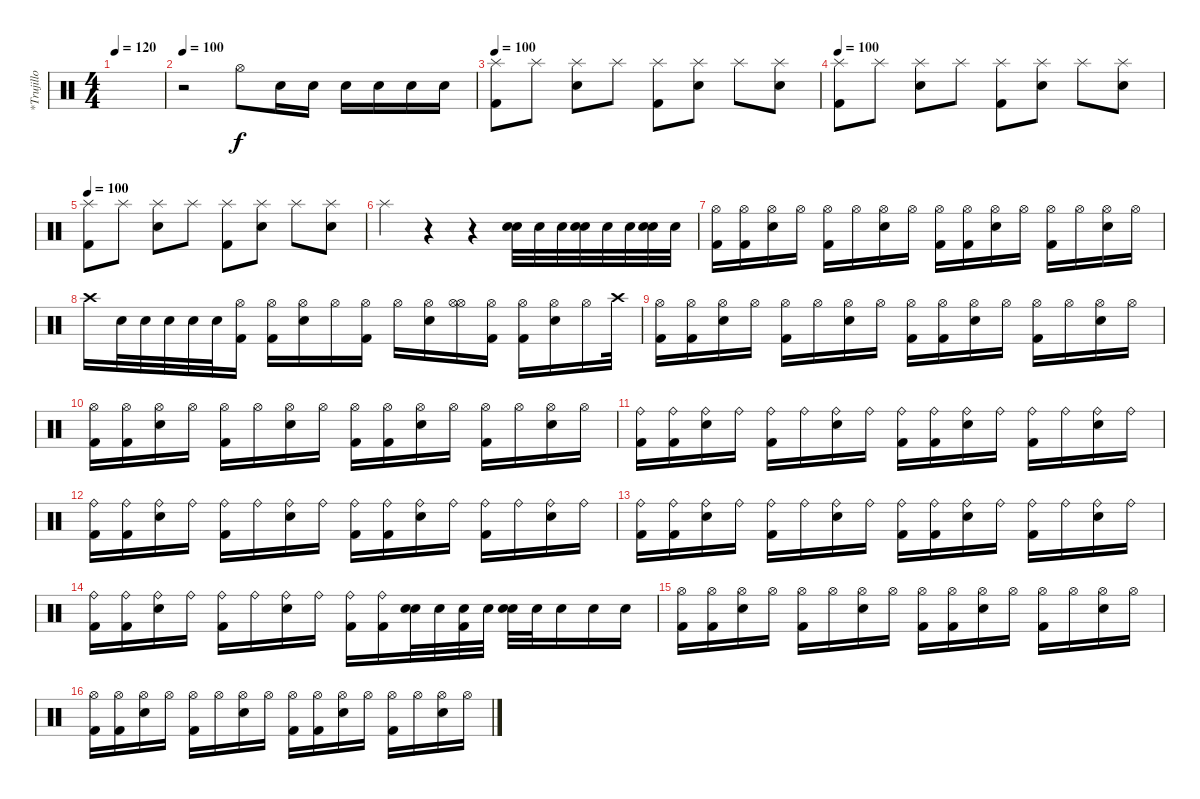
\track ("*Trujillo" "*Trujillo") {instrument percussion}
\staff {score}
\articulation defaults
\ts (4 4)
\tempo 120
\tempo 100
\tempo 120
\clef neutral
\ks c
|
\tempo 100
r.2 "Hi-Hat (open)".8 "Electric Snare (hit)".16 "Electric Snare (hit)".16 "Electric Snare (hit)".16 "Electric Snare (hit)".16 "Electric Snare (hit)".16 "Electric Snare (hit)".16 |
\tempo 100
("Splash (hit)" "Kick (hit) 2").8 "Splash (hit)".8 ("Splash (hit)" "Electric Snare (hit)").8 "Splash (hit)".8 ("Splash (hit)" "Kick (hit) 2").8 ("Splash (hit)" "Electric Snare (hit)").8 "Splash (hit)".8 ("Splash (hit)" "Electric Snare (hit)").8 |
\tempo 100
("Splash (hit)" "Kick (hit) 2").8 "Splash (hit)".8 ("Splash (hit)" "Electric Snare (hit)").8 "Splash (hit)".8 ("Splash (hit)" "Kick (hit) 2").8 ("Splash (hit)" "Electric Snare (hit)").8 "Splash (hit)".8 ("Splash (hit)" "Electric Snare (hit)").8 |
\tempo 100
("Splash (hit)" "Kick (hit) 2").8 "Splash (hit)".8 ("Splash (hit)" "Electric Snare (hit)").8 "Splash (hit)".8 ("Splash (hit)" "Kick (hit) 2").8 ("Splash (hit)" "Electric Snare (hit)").8 "Splash (hit)".8 ("Splash (hit)" "Electric Snare (hit)").8 |
"Splash (hit)".4 r.4 r.4 ("Electric Snare (hit)" "Electric Snare (hit)").32 "Electric Snare (hit)".32 "Electric Snare (hit)".32 ("Electric Snare (hit)" "Electric Snare (hit)").32 "Electric Snare (hit)".32 "Electric Snare (hit)".32 ("Electric Snare (hit)" "Electric Snare (hit)").32 "Electric Snare (hit)".32 |
("Hi-Hat (open)" "Kick (hit) 2").16 ("Hi-Hat (open)" "Kick (hit) 2").16 ("Hi-Hat (open)" "Electric Snare (hit)").16 "Hi-Hat (open)".16 ("Hi-Hat (open)" "Kick (hit) 2").16 "Hi-Hat (open)".16 ("Hi-Hat (open)" "Electric Snare (hit)").16 "Hi-Hat (open)".16 ("Hi-Hat (open)" "Kick (hit) 2").16 ("Hi-Hat (open)" "Kick (hit) 2").16 ("Hi-Hat (open)" "Electric Snare (hit)").16 "Hi-Hat (open)".16 ("Hi-Hat (open)" "Kick (hit) 2").16 "Hi-Hat (open)".16 ("Hi-Hat (open)" "Electric Snare (hit)").16 "Hi-Hat (open)".16 |
"Crash high (hit)".16 "Electric Snare (hit)".32 "Electric Snare (hit)".32 "Electric Snare (hit)".32 "Electric Snare (hit)".32 "Electric Snare (hit)".32 ("Hi-Hat (open)" "Kick (hit) 2").16 ("Hi-Hat (open)" "Kick (hit) 2").16 ("Hi-Hat (open)" "Electric Snare (hit)").16 "Hi-Hat (open)".16 ("Hi-Hat (open)" "Kick (hit) 2").16 "Hi-Hat (open)".16 ("Hi-Hat (open)" "Electric Snare (hit)").16 ("Hi-Hat (open)"{x} "Hi-Hat (open)").16 ("Hi-Hat (open)" "Kick (hit) 2").16 ("Hi-Hat (open)" "Kick (hit) 2").16 ("Hi-Hat (open)" "Electric Snare (hit)").16 "Hi-Hat (open)".16 "Crash high (hit)".32 |
("Hi-Hat (open)" "Kick (hit) 2").16 ("Hi-Hat (open)" "Kick (hit) 2").16 ("Hi-Hat (open)" "Electric Snare (hit)").16 "Hi-Hat (open)".16 ("Hi-Hat (open)" "Kick (hit) 2").16 "Hi-Hat (open)".16 ("Hi-Hat (open)" "Electric Snare (hit)").16 "Hi-Hat (open)".16 ("Hi-Hat (open)" "Kick (hit) 2").16 ("Hi-Hat (open)" "Kick (hit) 2").16 ("Hi-Hat (open)" "Electric Snare (hit)").16 "Hi-Hat (open)".16 ("Hi-Hat (open)" "Kick (hit) 2").16 "Hi-Hat (open)".16 ("Hi-Hat (open)" "Electric Snare (hit)").16 "Hi-Hat (open)".16 |
("Hi-Hat (open)" "Kick (hit) 2").16 ("Hi-Hat (open)" "Kick (hit) 2").16 ("Hi-Hat (open)" "Electric Snare (hit)").16 "Hi-Hat (open)".16 ("Hi-Hat (open)" "Kick (hit) 2").16 "Hi-Hat (open)".16 ("Hi-Hat (open)" "Electric Snare (hit)").16 "Hi-Hat (open)".16 ("Hi-Hat (open)" "Kick (hit) 2").16 ("Hi-Hat (open)" "Kick (hit) 2").16 ("Hi-Hat (open)" "Electric Snare (hit)").16 "Hi-Hat (open)".16 ("Hi-Hat (open)" "Kick (hit) 2").16 "Hi-Hat (open)".16 ("Hi-Hat (open)" "Electric Snare (hit)").16 "Hi-Hat (open)".16 |
("Ride (bell)" "Kick (hit) 2").16 ("Ride (bell)" "Kick (hit) 2").16 ("Ride (bell)" "Electric Snare (hit)").16 "Ride (bell)".16 ("Ride (bell)" "Kick (hit) 2").16 "Ride (bell)".16 ("Ride (bell)" "Electric Snare (hit)").16 "Ride (bell)".16 ("Ride (bell)" "Kick (hit) 2").16 ("Ride (bell)" "Kick (hit) 2").16 ("Ride (bell)" "Electric Snare (hit)").16 "Ride (bell)".16 ("Ride (bell)" "Kick (hit) 2").16 "Ride (bell)".16 ("Ride (bell)" "Electric Snare (hit)").16 "Ride (bell)".16 |
("Ride (bell)" "Kick (hit) 2").16 ("Ride (bell)" "Kick (hit) 2").16 ("Ride (bell)" "Electric Snare (hit)").16 "Ride (bell)".16 ("Ride (bell)" "Kick (hit) 2").16 "Ride (bell)".16 ("Ride (bell)" "Electric Snare (hit)").16 "Ride (bell)".16 ("Ride (bell)" "Kick (hit) 2").16 ("Ride (bell)" "Kick (hit) 2").16 ("Ride (bell)" "Electric Snare (hit)").16 "Ride (bell)".16 ("Ride (bell)" "Kick (hit) 2").16 "Ride (bell)".16 ("Ride (bell)" "Electric Snare (hit)").16 "Ride (bell)".16 |
("Ride (bell)" "Kick (hit) 2").16 ("Ride (bell)" "Kick (hit) 2").16 ("Ride (bell)" "Electric Snare (hit)").16 "Ride (bell)".16 ("Ride (bell)" "Kick (hit) 2").16 "Ride (bell)".16 ("Ride (bell)" "Electric Snare (hit)").16 "Ride (bell)".16 ("Ride (bell)" "Kick (hit) 2").16 ("Ride (bell)" "Kick (hit) 2").16 ("Ride (bell)" "Electric Snare (hit)").16 "Ride (bell)".16 ("Ride (bell)" "Kick (hit) 2").16 "Ride (bell)".16 ("Ride (bell)" "Electric Snare (hit)").16 "Ride (bell)".16 |
("Ride (bell)" "Kick (hit) 2").16 ("Ride (bell)" "Kick (hit) 2").16 ("Ride (bell)" "Electric Snare (hit)").16 "Ride (bell)".16 ("Ride (bell)" "Kick (hit) 2").16 "Ride (bell)".16 ("Ride (bell)" "Electric Snare (hit)").16 "Ride (bell)".16 ("Ride (bell)" "Kick (hit) 2").16 ("Ride (bell)" "Kick (hit) 2").16 ("Electric Snare (hit)" "Electric Snare (hit)"{x}).32 "Electric Snare (hit)".32 ("Electric Snare (hit)" "Kick (hit) 2"{x}).32 "Electric Snare (hit)".32 ("Electric Snare (hit)" "Electric Snare (hit)"{x}).32 "Electric Snare (hit)".32 "Electric Snare (hit)".16 "Electric Snare (hit)".16 "Electric Snare (hit)".16 |
("Hi-Hat (open)" "Kick (hit) 2").16 ("Hi-Hat (open)" "Kick (hit) 2").16 ("Hi-Hat (open)" "Electric Snare (hit)").16 "Hi-Hat (open)".16 ("Hi-Hat (open)" "Kick (hit) 2").16 "Hi-Hat (open)".16 ("Hi-Hat (open)" "Electric Snare (hit)").16 "Hi-Hat (open)".16 ("Hi-Hat (open)" "Kick (hit) 2").16 ("Hi-Hat (open)" "Kick (hit) 2").16 ("Hi-Hat (open)" "Electric Snare (hit)").16 "Hi-Hat (open)".16 ("Hi-Hat (open)" "Kick (hit) 2").16 "Hi-Hat (open)".16 ("Hi-Hat (open)" "Electric Snare (hit)").16 "Hi-Hat (open)".16 |
("Hi-Hat (open)" "Kick (hit) 2").16 ("Hi-Hat (open)" "Kick (hit) 2").16 ("Hi-Hat (open)" "Electric Snare (hit)").16 "Hi-Hat (open)".16 ("Hi-Hat (open)" "Kick (hit) 2").16 "Hi-Hat (open)".16 ("Hi-Hat (open)" "Electric Snare (hit)").16 "Hi-Hat (open)".16 ("Hi-Hat (open)" "Kick (hit) 2").16 ("Hi-Hat (open)" "Kick (hit) 2").16 ("Hi-Hat (open)" "Electric Snare (hit)").16 "Hi-Hat (open)".16 ("Hi-Hat (open)" "Kick (hit) 2").16 "Hi-Hat (open)".16 ("Hi-Hat (open)" "Electric Snare (hit)").16 "Hi-Hat (open)".16
